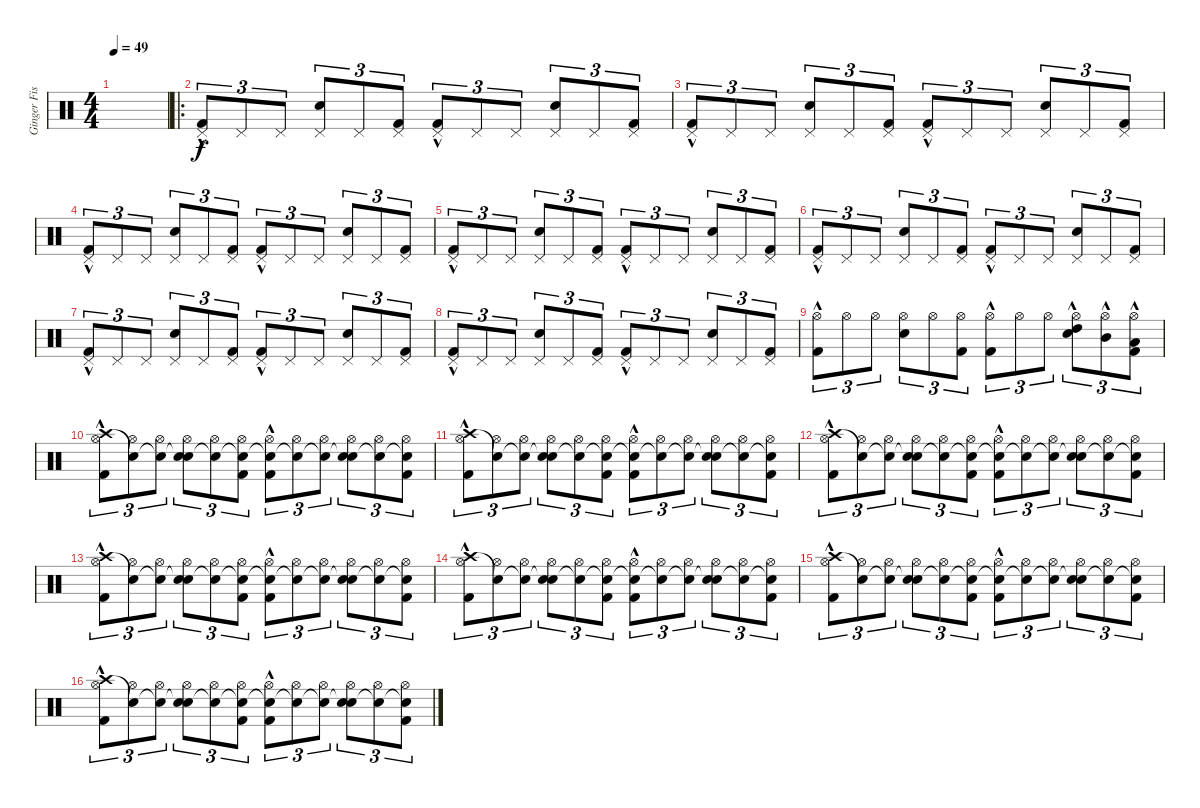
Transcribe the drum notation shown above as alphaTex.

\track ("Ginger Fish" "Ginger Fis") {instrument percussion}
\staff {score}
\articulation defaults
\ts (4 4)
\tempo 49
\clef neutral
\ks c
|
\ro
("Pedal Hi-Hat (hit)" "Kick (hit) 2"{hac}).8{tu (3 2)} "Pedal Hi-Hat (hit)".8{tu (3 2)} "Pedal Hi-Hat (hit)".8{tu (3 2)} ("Snare (hit) 2" "Pedal Hi-Hat (hit)").8{tu (3 2)} "Pedal Hi-Hat (hit)".8{tu (3 2)} ("Pedal Hi-Hat (hit)" "Kick (hit) 2").8{tu (3 2)} ("Pedal Hi-Hat (hit)" "Kick (hit) 2"{hac}).8{tu (3 2)} "Pedal Hi-Hat (hit)".8{tu (3 2)} "Pedal Hi-Hat (hit)".8{tu (3 2)} ("Snare (hit) 2" "Pedal Hi-Hat (hit)").8{tu (3 2)} "Pedal Hi-Hat (hit)".8{tu (3 2)} ("Pedal Hi-Hat (hit)" "Kick (hit) 2").8{tu (3 2)} |
("Pedal Hi-Hat (hit)" "Kick (hit) 2"{hac}).8{tu (3 2)} "Pedal Hi-Hat (hit)".8{tu (3 2)} "Pedal Hi-Hat (hit)".8{tu (3 2)} ("Snare (hit) 2" "Pedal Hi-Hat (hit)").8{tu (3 2)} "Pedal Hi-Hat (hit)".8{tu (3 2)} ("Pedal Hi-Hat (hit)" "Kick (hit) 2").8{tu (3 2)} ("Pedal Hi-Hat (hit)" "Kick (hit) 2"{hac}).8{tu (3 2)} "Pedal Hi-Hat (hit)".8{tu (3 2)} "Pedal Hi-Hat (hit)".8{tu (3 2)} ("Snare (hit) 2" "Pedal Hi-Hat (hit)").8{tu (3 2)} "Pedal Hi-Hat (hit)".8{tu (3 2)} ("Pedal Hi-Hat (hit)" "Kick (hit) 2").8{tu (3 2)} |
("Pedal Hi-Hat (hit)" "Kick (hit) 2"{hac}).8{tu (3 2)} "Pedal Hi-Hat (hit)".8{tu (3 2)} "Pedal Hi-Hat (hit)".8{tu (3 2)} ("Snare (hit) 2" "Pedal Hi-Hat (hit)").8{tu (3 2)} "Pedal Hi-Hat (hit)".8{tu (3 2)} ("Pedal Hi-Hat (hit)" "Kick (hit) 2").8{tu (3 2)} ("Pedal Hi-Hat (hit)" "Kick (hit) 2"{hac}).8{tu (3 2)} "Pedal Hi-Hat (hit)".8{tu (3 2)} "Pedal Hi-Hat (hit)".8{tu (3 2)} ("Snare (hit) 2" "Pedal Hi-Hat (hit)").8{tu (3 2)} "Pedal Hi-Hat (hit)".8{tu (3 2)} ("Pedal Hi-Hat (hit)" "Kick (hit) 2").8{tu (3 2)} |
("Pedal Hi-Hat (hit)" "Kick (hit) 2"{hac}).8{tu (3 2)} "Pedal Hi-Hat (hit)".8{tu (3 2)} "Pedal Hi-Hat (hit)".8{tu (3 2)} ("Snare (hit) 2" "Pedal Hi-Hat (hit)").8{tu (3 2)} "Pedal Hi-Hat (hit)".8{tu (3 2)} ("Pedal Hi-Hat (hit)" "Kick (hit) 2").8{tu (3 2)} ("Pedal Hi-Hat (hit)" "Kick (hit) 2"{hac}).8{tu (3 2)} "Pedal Hi-Hat (hit)".8{tu (3 2)} "Pedal Hi-Hat (hit)".8{tu (3 2)} ("Snare (hit) 2" "Pedal Hi-Hat (hit)").8{tu (3 2)} "Pedal Hi-Hat (hit)".8{tu (3 2)} ("Pedal Hi-Hat (hit)" "Kick (hit) 2").8{tu (3 2)} |
("Pedal Hi-Hat (hit)" "Kick (hit) 2"{hac}).8{tu (3 2)} "Pedal Hi-Hat (hit)".8{tu (3 2)} "Pedal Hi-Hat (hit)".8{tu (3 2)} ("Snare (hit) 2" "Pedal Hi-Hat (hit)").8{tu (3 2)} "Pedal Hi-Hat (hit)".8{tu (3 2)} ("Pedal Hi-Hat (hit)" "Kick (hit) 2").8{tu (3 2)} ("Pedal Hi-Hat (hit)" "Kick (hit) 2"{hac}).8{tu (3 2)} "Pedal Hi-Hat (hit)".8{tu (3 2)} "Pedal Hi-Hat (hit)".8{tu (3 2)} ("Snare (hit) 2" "Pedal Hi-Hat (hit)").8{tu (3 2)} "Pedal Hi-Hat (hit)".8{tu (3 2)} ("Pedal Hi-Hat (hit)" "Kick (hit) 2").8{tu (3 2)} |
("Pedal Hi-Hat (hit)" "Kick (hit) 2"{hac}).8{tu (3 2)} "Pedal Hi-Hat (hit)".8{tu (3 2)} "Pedal Hi-Hat (hit)".8{tu (3 2)} ("Snare (hit) 2" "Pedal Hi-Hat (hit)").8{tu (3 2)} "Pedal Hi-Hat (hit)".8{tu (3 2)} ("Pedal Hi-Hat (hit)" "Kick (hit) 2").8{tu (3 2)} ("Pedal Hi-Hat (hit)" "Kick (hit) 2"{hac}).8{tu (3 2)} "Pedal Hi-Hat (hit)".8{tu (3 2)} "Pedal Hi-Hat (hit)".8{tu (3 2)} ("Snare (hit) 2" "Pedal Hi-Hat (hit)").8{tu (3 2)} "Pedal Hi-Hat (hit)".8{tu (3 2)} ("Pedal Hi-Hat (hit)" "Kick (hit) 2").8{tu (3 2)} |
("Pedal Hi-Hat (hit)" "Kick (hit) 2"{hac}).8{tu (3 2)} "Pedal Hi-Hat (hit)".8{tu (3 2)} "Pedal Hi-Hat (hit)".8{tu (3 2)} ("Snare (hit) 2" "Pedal Hi-Hat (hit)").8{tu (3 2)} "Pedal Hi-Hat (hit)".8{tu (3 2)} ("Pedal Hi-Hat (hit)" "Kick (hit) 2").8{tu (3 2)} ("Pedal Hi-Hat (hit)" "Kick (hit) 2"{hac}).8{tu (3 2)} "Pedal Hi-Hat (hit)".8{tu (3 2)} "Pedal Hi-Hat (hit)".8{tu (3 2)} ("Snare (hit) 2" "Pedal Hi-Hat (hit)").8{tu (3 2)} "Pedal Hi-Hat (hit)".8{tu (3 2)} ("Pedal Hi-Hat (hit)" "Kick (hit) 2").8{tu (3 2)} |
("Hi-Hat (open)" "Kick (hit) 2"{hac}).8{tu (3 2)} "Hi-Hat (open)".8{tu (3 2)} "Hi-Hat (open)".8{tu (3 2)} ("Snare (hit) 2" "Hi-Hat (open)").8{tu (3 2)} "Hi-Hat (open)".8{tu (3 2)} ("Hi-Hat (open)" "Kick (hit) 2").8{tu (3 2)} ("Hi-Hat (open)" "Kick (hit) 2"{hac}).8{tu (3 2)} "Hi-Hat (open)".8{tu (3 2)} "Hi-Hat (open)".8{tu (3 2)} ("High Tom (hit)"{hac} "Snare (hit) 2"{hac} "Hi-Hat (open)"{hac}).8{tu (3 2)} ("Mid Tom (hit)"{hac} "Hi-Hat (open)").8{tu (3 2)} ("Low Tom (hit)"{hac} "Hi-Hat (open)" "Kick (hit) 2").8{tu (3 2)} |
("Crash high (hit)"{hac} "Hi-Hat (open)" "Kick (hit) 2").8{tu (3 2)} ("Snare (hit)"{t} "Hi-Hat (open)").8{tu (3 2)} ("Snare (hit)"{t} "Hi-Hat (open)").8{tu (3 2)} ("Snare (hit)"{t} "Snare (hit) 2" "Hi-Hat (open)").8{tu (3 2)} ("Snare (hit)"{t} "Hi-Hat (open)").8{tu (3 2)} ("Snare (hit)"{t} "Hi-Hat (open)" "Kick (hit) 2").8{tu (3 2)} ("Snare (hit)"{t} "Hi-Hat (open)" "Kick (hit) 2"{hac}).8{tu (3 2)} ("Snare (hit)"{t} "Hi-Hat (open)").8{tu (3 2)} ("Snare (hit)"{t} "Hi-Hat (open)").8{tu (3 2)} ("Snare (hit)"{t} "Snare (hit) 2" "Hi-Hat (open)").8{tu (3 2)} ("Snare (hit)"{t} "Hi-Hat (open)").8{tu (3 2)} ("Snare (hit)"{t} "Hi-Hat (open)" "Kick (hit) 2").8{tu (3 2)} |
("Crash high (hit)"{hac} "Hi-Hat (open)" "Kick (hit) 2").8{tu (3 2)} ("Snare (hit)"{t} "Hi-Hat (open)").8{tu (3 2)} ("Snare (hit)"{t} "Hi-Hat (open)").8{tu (3 2)} ("Snare (hit)"{t} "Snare (hit) 2" "Hi-Hat (open)").8{tu (3 2)} ("Snare (hit)"{t} "Hi-Hat (open)").8{tu (3 2)} ("Snare (hit)"{t} "Hi-Hat (open)" "Kick (hit) 2").8{tu (3 2)} ("Snare (hit)"{t} "Hi-Hat (open)" "Kick (hit) 2"{hac}).8{tu (3 2)} ("Snare (hit)"{t} "Hi-Hat (open)").8{tu (3 2)} ("Snare (hit)"{t} "Hi-Hat (open)").8{tu (3 2)} ("Snare (hit)"{t} "Snare (hit) 2" "Hi-Hat (open)").8{tu (3 2)} ("Snare (hit)"{t} "Hi-Hat (open)").8{tu (3 2)} ("Snare (hit)"{t} "Hi-Hat (open)" "Kick (hit) 2").8{tu (3 2)} |
("Crash high (hit)"{hac} "Hi-Hat (open)" "Kick (hit) 2").8{tu (3 2)} ("Snare (hit)"{t} "Hi-Hat (open)").8{tu (3 2)} ("Snare (hit)"{t} "Hi-Hat (open)").8{tu (3 2)} ("Snare (hit)"{t} "Snare (hit) 2" "Hi-Hat (open)").8{tu (3 2)} ("Snare (hit)"{t} "Hi-Hat (open)").8{tu (3 2)} ("Snare (hit)"{t} "Hi-Hat (open)" "Kick (hit) 2").8{tu (3 2)} ("Snare (hit)"{t} "Hi-Hat (open)" "Kick (hit) 2"{hac}).8{tu (3 2)} ("Snare (hit)"{t} "Hi-Hat (open)").8{tu (3 2)} ("Snare (hit)"{t} "Hi-Hat (open)").8{tu (3 2)} ("Snare (hit)"{t} "Snare (hit) 2" "Hi-Hat (open)").8{tu (3 2)} ("Snare (hit)"{t} "Hi-Hat (open)").8{tu (3 2)} ("Snare (hit)"{t} "Hi-Hat (open)" "Kick (hit) 2").8{tu (3 2)} |
("Crash high (hit)"{hac} "Hi-Hat (open)" "Kick (hit) 2").8{tu (3 2)} ("Snare (hit)"{t} "Hi-Hat (open)").8{tu (3 2)} ("Snare (hit)"{t} "Hi-Hat (open)").8{tu (3 2)} ("Snare (hit)"{t} "Snare (hit) 2" "Hi-Hat (open)").8{tu (3 2)} ("Snare (hit)"{t} "Hi-Hat (open)").8{tu (3 2)} ("Snare (hit)"{t} "Hi-Hat (open)" "Kick (hit) 2").8{tu (3 2)} ("Snare (hit)"{t} "Hi-Hat (open)" "Kick (hit) 2"{hac}).8{tu (3 2)} ("Snare (hit)"{t} "Hi-Hat (open)").8{tu (3 2)} ("Snare (hit)"{t} "Hi-Hat (open)").8{tu (3 2)} ("Snare (hit)"{t} "Snare (hit) 2" "Hi-Hat (open)").8{tu (3 2)} ("Snare (hit)"{t} "Hi-Hat (open)").8{tu (3 2)} ("Snare (hit)"{t} "Hi-Hat (open)" "Kick (hit) 2").8{tu (3 2)} |
("Crash high (hit)"{hac} "Hi-Hat (open)" "Kick (hit) 2").8{tu (3 2)} ("Snare (hit)"{t} "Hi-Hat (open)").8{tu (3 2)} ("Snare (hit)"{t} "Hi-Hat (open)").8{tu (3 2)} ("Snare (hit)"{t} "Snare (hit) 2" "Hi-Hat (open)").8{tu (3 2)} ("Snare (hit)"{t} "Hi-Hat (open)").8{tu (3 2)} ("Snare (hit)"{t} "Hi-Hat (open)" "Kick (hit) 2").8{tu (3 2)} ("Snare (hit)"{t} "Hi-Hat (open)" "Kick (hit) 2"{hac}).8{tu (3 2)} ("Snare (hit)"{t} "Hi-Hat (open)").8{tu (3 2)} ("Snare (hit)"{t} "Hi-Hat (open)").8{tu (3 2)} ("Snare (hit)"{t} "Snare (hit) 2" "Hi-Hat (open)").8{tu (3 2)} ("Snare (hit)"{t} "Hi-Hat (open)").8{tu (3 2)} ("Snare (hit)"{t} "Hi-Hat (open)" "Kick (hit) 2").8{tu (3 2)} |
("Crash high (hit)"{hac} "Hi-Hat (open)" "Kick (hit) 2").8{tu (3 2)} ("Snare (hit)"{t} "Hi-Hat (open)").8{tu (3 2)} ("Snare (hit)"{t} "Hi-Hat (open)").8{tu (3 2)} ("Snare (hit)"{t} "Snare (hit) 2" "Hi-Hat (open)").8{tu (3 2)} ("Snare (hit)"{t} "Hi-Hat (open)").8{tu (3 2)} ("Snare (hit)"{t} "Hi-Hat (open)" "Kick (hit) 2").8{tu (3 2)} ("Snare (hit)"{t} "Hi-Hat (open)" "Kick (hit) 2"{hac}).8{tu (3 2)} ("Snare (hit)"{t} "Hi-Hat (open)").8{tu (3 2)} ("Snare (hit)"{t} "Hi-Hat (open)").8{tu (3 2)} ("Snare (hit)"{t} "Snare (hit) 2" "Hi-Hat (open)").8{tu (3 2)} ("Snare (hit)"{t} "Hi-Hat (open)").8{tu (3 2)} ("Snare (hit)"{t} "Hi-Hat (open)" "Kick (hit) 2").8{tu (3 2)} |
("Crash high (hit)"{hac} "Hi-Hat (open)" "Kick (hit) 2").8{tu (3 2)} ("Snare (hit)"{t} "Hi-Hat (open)").8{tu (3 2)} ("Snare (hit)"{t} "Hi-Hat (open)").8{tu (3 2)} ("Snare (hit)"{t} "Snare (hit) 2" "Hi-Hat (open)").8{tu (3 2)} ("Snare (hit)"{t} "Hi-Hat (open)").8{tu (3 2)} ("Snare (hit)"{t} "Hi-Hat (open)" "Kick (hit) 2").8{tu (3 2)} ("Snare (hit)"{t} "Hi-Hat (open)" "Kick (hit) 2"{hac}).8{tu (3 2)} ("Snare (hit)"{t} "Hi-Hat (open)").8{tu (3 2)} ("Snare (hit)"{t} "Hi-Hat (open)").8{tu (3 2)} ("Snare (hit)"{t} "Snare (hit) 2" "Hi-Hat (open)").8{tu (3 2)} ("Snare (hit)"{t} "Hi-Hat (open)").8{tu (3 2)} ("Snare (hit)"{t} "Hi-Hat (open)" "Kick (hit) 2").8{tu (3 2)}
